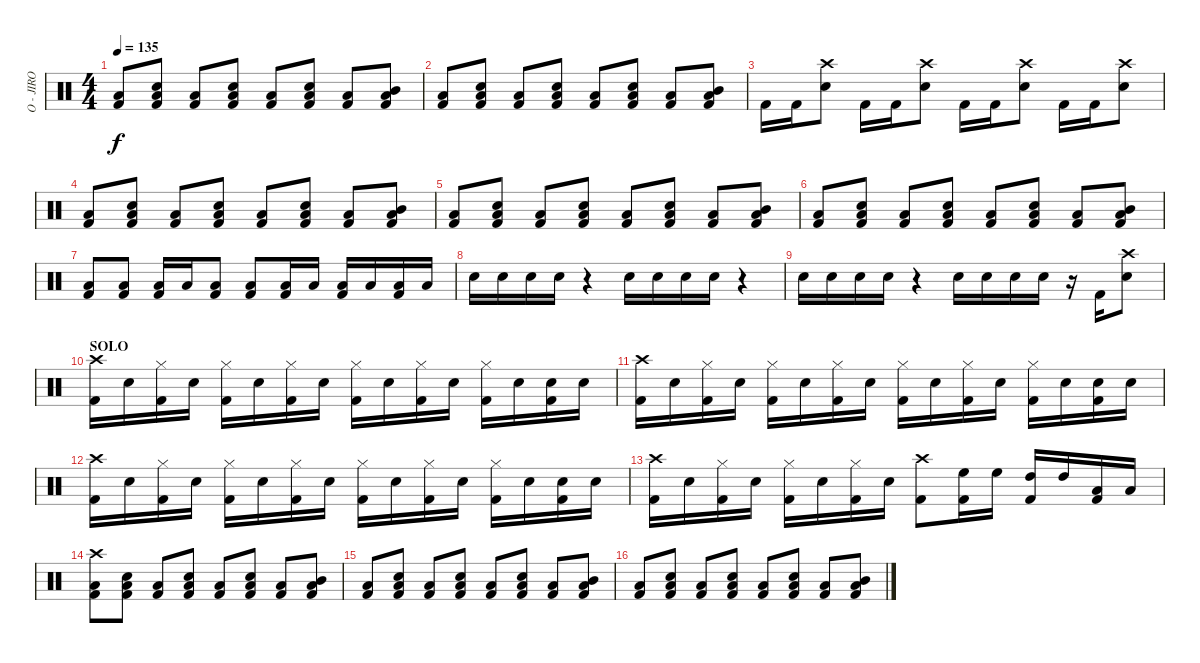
\track ("O - JIRO" "O - JIRO") {instrument percussion}
\staff {score}
\articulation defaults
\ts (4 4)
\tempo 135
\clef neutral
\ks c
("Kick (hit) 2" "Low Floor Tom (hit)").8{dy f} ("Snare (hit) 2" "Kick (hit) 2" "Low Floor Tom (hit)").8 ("Kick (hit) 2" "Low Floor Tom (hit)").8 ("Snare (hit) 2" "Kick (hit) 2" "Low Floor Tom (hit)").8 ("Kick (hit) 2" "Low Floor Tom (hit)").8 ("Snare (hit) 2" "Kick (hit) 2" "Low Floor Tom (hit)").8 ("Kick (hit) 2" "Low Floor Tom (hit)").8 ("Mid Tom (hit)" "Kick (hit) 2" "Low Floor Tom (hit)").8 |
("Kick (hit) 2" "Low Floor Tom (hit)").8 ("Snare (hit) 2" "Kick (hit) 2" "Low Floor Tom (hit)").8 ("Kick (hit) 2" "Low Floor Tom (hit)").8 ("Snare (hit) 2" "Kick (hit) 2" "Low Floor Tom (hit)").8 ("Kick (hit) 2" "Low Floor Tom (hit)").8 ("Snare (hit) 2" "Kick (hit) 2" "Low Floor Tom (hit)").8 ("Kick (hit) 2" "Low Floor Tom (hit)").8 ("Mid Tom (hit)" "Kick (hit) 2" "Low Floor Tom (hit)").8 |
"Kick (hit) 2".16 "Kick (hit) 2".16 ("Crash high (hit)" "Snare (hit) 2").8 "Kick (hit) 2".16 "Kick (hit) 2".16 ("Crash high (hit)" "Snare (hit) 2").8 "Kick (hit) 2".16 "Kick (hit) 2".16 ("Crash high (hit)" "Snare (hit) 2").8 "Kick (hit) 2".16 "Kick (hit) 2".16 ("Crash high (hit)" "Snare (hit) 2").8 |
("Kick (hit) 2" "Low Floor Tom (hit)").8 ("Snare (hit) 2" "Kick (hit) 2" "Low Floor Tom (hit)").8 ("Kick (hit) 2" "Low Floor Tom (hit)").8 ("Snare (hit) 2" "Kick (hit) 2" "Low Floor Tom (hit)").8 ("Kick (hit) 2" "Low Floor Tom (hit)").8 ("Snare (hit) 2" "Kick (hit) 2" "Low Floor Tom (hit)").8 ("Kick (hit) 2" "Low Floor Tom (hit)").8 ("Mid Tom (hit)" "Kick (hit) 2" "Low Floor Tom (hit)").8 |
("Kick (hit) 2" "Low Floor Tom (hit)").8 ("Snare (hit) 2" "Kick (hit) 2" "Low Floor Tom (hit)").8 ("Kick (hit) 2" "Low Floor Tom (hit)").8 ("Snare (hit) 2" "Kick (hit) 2" "Low Floor Tom (hit)").8 ("Kick (hit) 2" "Low Floor Tom (hit)").8 ("Snare (hit) 2" "Kick (hit) 2" "Low Floor Tom (hit)").8 ("Kick (hit) 2" "Low Floor Tom (hit)").8 ("Mid Tom (hit)" "Kick (hit) 2" "Low Floor Tom (hit)").8 |
("Kick (hit) 2" "Low Floor Tom (hit)").8 ("Snare (hit) 2" "Kick (hit) 2" "Low Floor Tom (hit)").8 ("Kick (hit) 2" "Low Floor Tom (hit)").8 ("Snare (hit) 2" "Kick (hit) 2" "Low Floor Tom (hit)").8 ("Kick (hit) 2" "Low Floor Tom (hit)").8 ("Snare (hit) 2" "Kick (hit) 2" "Low Floor Tom (hit)").8 ("Kick (hit) 2" "Low Floor Tom (hit)").8 ("Mid Tom (hit)" "Kick (hit) 2" "Low Floor Tom (hit)").8 |
("Low Floor Tom (hit)" "Kick (hit) 2").8 ("Low Floor Tom (hit)" "Kick (hit) 2").8 ("Low Floor Tom (hit)" "Kick (hit) 2").16 "Low Tom (hit)".16 ("Low Floor Tom (hit)" "Kick (hit) 2").8 ("Low Floor Tom (hit)" "Kick (hit) 2").8 ("Low Floor Tom (hit)" "Kick (hit) 2").16 "Low Tom (hit)".16 ("Low Floor Tom (hit)" "Kick (hit) 2").16 "Low Floor Tom (hit)".16 ("Low Tom (hit)" "Kick (hit) 2").16 "Low Tom (hit)".16 |
"Snare (hit) 2".16 "Snare (hit) 2".16 "Snare (hit) 2".16 "Snare (hit) 2".16 r.4 "Snare (hit) 2".16 "Snare (hit) 2".16 "Snare (hit) 2".16 "Snare (hit) 2".16 r.4 |
"Snare (hit) 2".16 "Snare (hit) 2".16 "Snare (hit) 2".16 "Snare (hit) 2".16 r.4 "Snare (hit) 2".16 "Snare (hit) 2".16 "Snare (hit) 2".16 "Snare (hit) 2".16 r.16 "Kick (hit) 2".16 ("Crash high (hit)" "Snare (hit) 2").8 |
\section ("" "SOLO")
("Crash high (hit)" "Kick (hit) 2").16 "Snare (hit) 2".16 ("Hi-Hat (closed)" "Kick (hit) 2").16 "Snare (hit) 2".16 ("Hi-Hat (closed)" "Kick (hit) 2").16 "Snare (hit) 2".16 ("Hi-Hat (closed)" "Kick (hit) 2").16 "Snare (hit) 2".16 ("Hi-Hat (closed)" "Kick (hit) 2").16 "Snare (hit) 2".16 ("Hi-Hat (closed)" "Kick (hit) 2").16 "Snare (hit) 2".16 ("Hi-Hat (closed)" "Kick (hit) 2").16 "Snare (hit) 2".16 ("Snare (hit) 2" "Kick (hit) 2").16 "Snare (hit) 2".16 |
("Crash high (hit)" "Kick (hit) 2").16 "Snare (hit) 2".16 ("Hi-Hat (closed)" "Kick (hit) 2").16 "Snare (hit) 2".16 ("Hi-Hat (closed)" "Kick (hit) 2").16 "Snare (hit) 2".16 ("Hi-Hat (closed)" "Kick (hit) 2").16 "Snare (hit) 2".16 ("Hi-Hat (closed)" "Kick (hit) 2").16 "Snare (hit) 2".16 ("Hi-Hat (closed)" "Kick (hit) 2").16 "Snare (hit) 2".16 ("Hi-Hat (closed)" "Kick (hit) 2").16 "Snare (hit) 2".16 ("Snare (hit) 2" "Kick (hit) 2").16 "Snare (hit) 2".16 |
("Crash high (hit)" "Kick (hit) 2").16 "Snare (hit) 2".16 ("Hi-Hat (closed)" "Kick (hit) 2").16 "Snare (hit) 2".16 ("Hi-Hat (closed)" "Kick (hit) 2").16 "Snare (hit) 2".16 ("Hi-Hat (closed)" "Kick (hit) 2").16 "Snare (hit) 2".16 ("Hi-Hat (closed)" "Kick (hit) 2").16 "Snare (hit) 2".16 ("Hi-Hat (closed)" "Kick (hit) 2").16 "Snare (hit) 2".16 ("Hi-Hat (closed)" "Kick (hit) 2").16 "Snare (hit) 2".16 ("Snare (hit) 2" "Kick (hit) 2").16 "Snare (hit) 2".16 |
("Crash high (hit)" "Kick (hit) 2").16 "Snare (hit) 2".16 ("Hi-Hat (closed)" "Kick (hit) 2").16 "Snare (hit) 2".16 ("Hi-Hat (closed)" "Kick (hit) 2").16 "Snare (hit) 2".16 ("Hi-Hat (closed)" "Kick (hit) 2").16 "Snare (hit) 2".16 ("Crash high (hit)" "Kick (hit) 2").8 ("High Floor Tom (hit)" "Kick (hit) 2").16 "High Floor Tom (hit)".16 ("High Tom (hit)" "Kick (hit) 2").16 "High Tom (hit)".16 ("Low Tom (hit)" "Kick (hit) 2").16 "Low Tom (hit)".16 |
("Crash high (hit)" "Kick (hit) 2" "Low Floor Tom (hit)").8 ("Snare (hit) 2" "Kick (hit) 2" "Low Floor Tom (hit)").8 ("Kick (hit) 2" "Low Floor Tom (hit)").8 ("Snare (hit) 2" "Kick (hit) 2" "Low Floor Tom (hit)").8 ("Kick (hit) 2" "Low Floor Tom (hit)").8 ("Snare (hit) 2" "Kick (hit) 2" "Low Floor Tom (hit)").8 ("Kick (hit) 2" "Low Floor Tom (hit)").8 ("Mid Tom (hit)" "Kick (hit) 2" "Low Floor Tom (hit)").8 |
("Kick (hit) 2" "Low Floor Tom (hit)").8 ("Snare (hit) 2" "Kick (hit) 2" "Low Floor Tom (hit)").8 ("Kick (hit) 2" "Low Floor Tom (hit)").8 ("Snare (hit) 2" "Kick (hit) 2" "Low Floor Tom (hit)").8 ("Kick (hit) 2" "Low Floor Tom (hit)").8 ("Snare (hit) 2" "Kick (hit) 2" "Low Floor Tom (hit)").8 ("Kick (hit) 2" "Low Floor Tom (hit)").8 ("Mid Tom (hit)" "Kick (hit) 2" "Low Floor Tom (hit)").8 |
("Kick (hit) 2" "Low Floor Tom (hit)").8 ("Snare (hit) 2" "Kick (hit) 2" "Low Floor Tom (hit)").8 ("Kick (hit) 2" "Low Floor Tom (hit)").8 ("Snare (hit) 2" "Kick (hit) 2" "Low Floor Tom (hit)").8 ("Kick (hit) 2" "Low Floor Tom (hit)").8 ("Snare (hit) 2" "Kick (hit) 2" "Low Floor Tom (hit)").8 ("Kick (hit) 2" "Low Floor Tom (hit)").8 ("Mid Tom (hit)" "Kick (hit) 2" "Low Floor Tom (hit)").8
